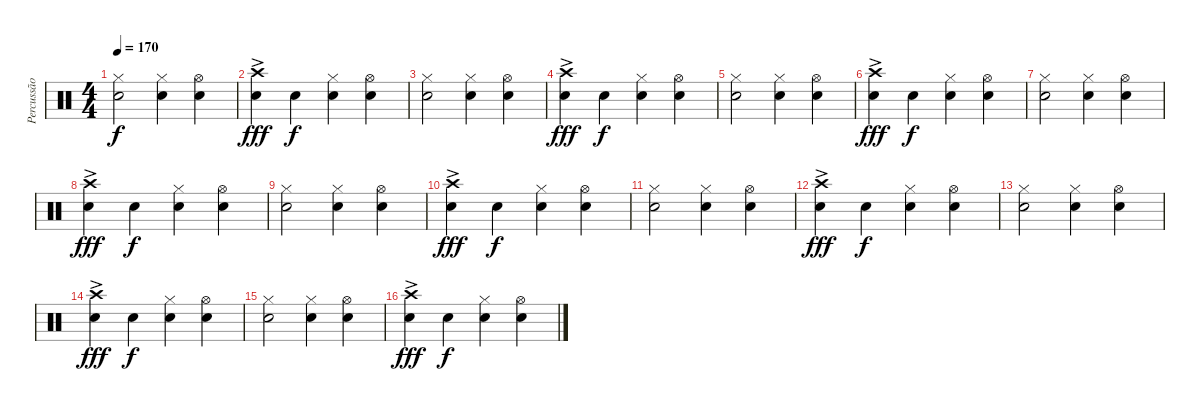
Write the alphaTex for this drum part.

\track ("Percussão" "Percussão") {instrument percussion}
\staff {score}
\articulation defaults
\ts (4 4)
\tempo 170
\clef neutral
\ks c
("Hi-Hat (closed)" "Snare (hit) 2").2{dy f} ("Hi-Hat (closed)" "Snare (hit) 2").4 ("Hi-Hat (open)" "Snare (hit) 2").4 |
("Crash high (hit)"{ac} "Snare (hit) 2").4{dy fff} "Snare (hit) 2".4{dy f} ("Hi-Hat (closed)" "Snare (hit) 2").4 ("Hi-Hat (open)" "Snare (hit) 2").4 |
("Hi-Hat (closed)" "Snare (hit) 2").2 ("Hi-Hat (closed)" "Snare (hit) 2").4 ("Hi-Hat (open)" "Snare (hit) 2").4 |
("Crash high (hit)"{ac} "Snare (hit) 2").4{dy fff} "Snare (hit) 2".4{dy f} ("Hi-Hat (closed)" "Snare (hit) 2").4 ("Hi-Hat (open)" "Snare (hit) 2").4 |
("Hi-Hat (closed)" "Snare (hit) 2").2 ("Hi-Hat (closed)" "Snare (hit) 2").4 ("Hi-Hat (open)" "Snare (hit) 2").4 |
("Crash high (hit)"{ac} "Snare (hit) 2").4{dy fff} "Snare (hit) 2".4{dy f} ("Hi-Hat (closed)" "Snare (hit) 2").4 ("Hi-Hat (open)" "Snare (hit) 2").4 |
("Hi-Hat (closed)" "Snare (hit) 2").2 ("Hi-Hat (closed)" "Snare (hit) 2").4 ("Hi-Hat (open)" "Snare (hit) 2").4 |
("Crash high (hit)"{ac} "Snare (hit) 2").4{dy fff} "Snare (hit) 2".4{dy f} ("Hi-Hat (closed)" "Snare (hit) 2").4 ("Hi-Hat (open)" "Snare (hit) 2").4 |
("Hi-Hat (closed)" "Snare (hit) 2").2 ("Hi-Hat (closed)" "Snare (hit) 2").4 ("Hi-Hat (open)" "Snare (hit) 2").4 |
("Crash high (hit)"{ac} "Snare (hit) 2").4{dy fff} "Snare (hit) 2".4{dy f} ("Hi-Hat (closed)" "Snare (hit) 2").4 ("Hi-Hat (open)" "Snare (hit) 2").4 |
("Hi-Hat (closed)" "Snare (hit) 2").2 ("Hi-Hat (closed)" "Snare (hit) 2").4 ("Hi-Hat (open)" "Snare (hit) 2").4 |
("Crash high (hit)"{ac} "Snare (hit) 2").4{dy fff} "Snare (hit) 2".4{dy f} ("Hi-Hat (closed)" "Snare (hit) 2").4 ("Hi-Hat (open)" "Snare (hit) 2").4 |
("Hi-Hat (closed)" "Snare (hit) 2").2 ("Hi-Hat (closed)" "Snare (hit) 2").4 ("Hi-Hat (open)" "Snare (hit) 2").4 |
("Crash high (hit)"{ac} "Snare (hit) 2").4{dy fff} "Snare (hit) 2".4{dy f} ("Hi-Hat (closed)" "Snare (hit) 2").4 ("Hi-Hat (open)" "Snare (hit) 2").4 |
("Hi-Hat (closed)" "Snare (hit) 2").2 ("Hi-Hat (closed)" "Snare (hit) 2").4 ("Hi-Hat (open)" "Snare (hit) 2").4 |
("Crash high (hit)"{ac} "Snare (hit) 2").4{dy fff} "Snare (hit) 2".4{dy f} ("Hi-Hat (closed)" "Snare (hit) 2").4 ("Hi-Hat (open)" "Snare (hit) 2").4
